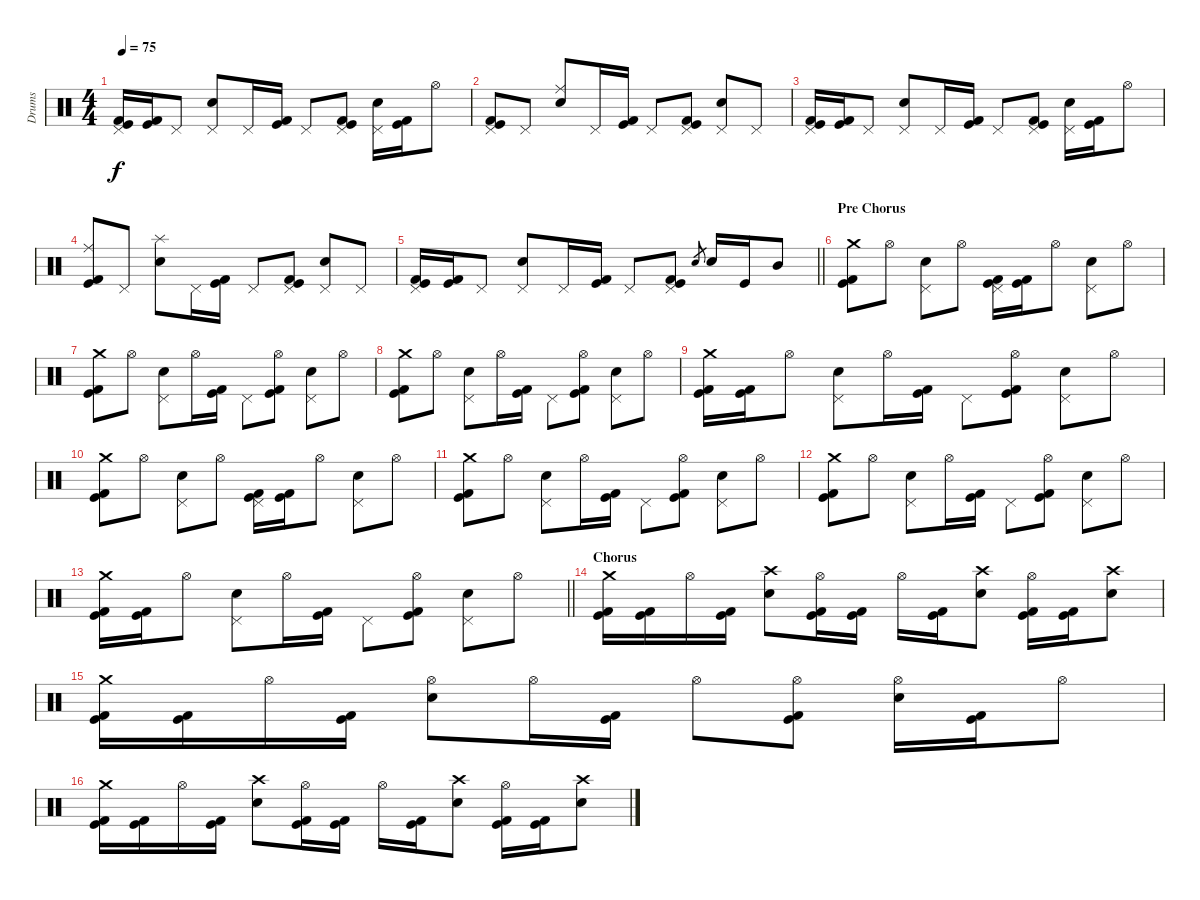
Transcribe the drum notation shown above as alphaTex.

\track ("Drums" "Drums") {instrument percussion}
\staff {score}
\articulation defaults
\ts (4 4)
\tempo 75
\clef neutral
\ks c
("Pedal Hi-Hat (hit)" "Kick (hit) 2" "Kick (hit)").16{dy f} ("Kick (hit) 2" "Kick (hit)").16 "Pedal Hi-Hat (hit)".8 ("Pedal Hi-Hat (hit)" "Electric Snare (hit)").8 "Pedal Hi-Hat (hit)".16 ("Kick (hit) 2" "Kick (hit)").16 "Pedal Hi-Hat (hit)".8 ("Pedal Hi-Hat (hit)" "Kick (hit) 2" "Kick (hit)").8 ("Pedal Hi-Hat (hit)" "Electric Snare (hit)").16 ("Kick (hit) 2" "Kick (hit)").16 "Hi-Hat (open)".8 |
("Pedal Hi-Hat (hit)" "Kick (hit) 2" "Kick (hit)").8 "Pedal Hi-Hat (hit)".8 ("Ride (middle)" "Electric Snare (hit)").8 "Pedal Hi-Hat (hit)".16 ("Kick (hit) 2" "Kick (hit)").16 "Pedal Hi-Hat (hit)".8 ("Pedal Hi-Hat (hit)" "Kick (hit) 2" "Kick (hit)").8 ("Pedal Hi-Hat (hit)" "Electric Snare (hit)").8 "Pedal Hi-Hat (hit)".8 |
("Pedal Hi-Hat (hit)" "Kick (hit) 2" "Kick (hit)").16 ("Kick (hit) 2" "Kick (hit)").16 "Pedal Hi-Hat (hit)".8 ("Pedal Hi-Hat (hit)" "Electric Snare (hit)").8 "Pedal Hi-Hat (hit)".16 ("Kick (hit) 2" "Kick (hit)").16 "Pedal Hi-Hat (hit)".8 ("Pedal Hi-Hat (hit)" "Kick (hit) 2" "Kick (hit)").8 ("Pedal Hi-Hat (hit)" "Electric Snare (hit)").16 ("Kick (hit) 2" "Kick (hit)").16 "Hi-Hat (open)".8 |
("Ride (middle)" "Kick (hit) 2" "Kick (hit)").8 "Pedal Hi-Hat (hit)".8 ("Splash (hit)" "Electric Snare (hit)").8 "Pedal Hi-Hat (hit)".16 ("Kick (hit) 2" "Kick (hit)").16 "Pedal Hi-Hat (hit)".8 ("Pedal Hi-Hat (hit)" "Kick (hit) 2" "Kick (hit)").8 ("Pedal Hi-Hat (hit)" "Electric Snare (hit)").8 "Pedal Hi-Hat (hit)".8 |
\barLineRight lightlight
("Pedal Hi-Hat (hit)" "Kick (hit) 2" "Kick (hit)").16 ("Kick (hit) 2" "Kick (hit)").16 "Pedal Hi-Hat (hit)".8 ("Pedal Hi-Hat (hit)" "Electric Snare (hit)").8 "Pedal Hi-Hat (hit)".16 ("Kick (hit) 2" "Kick (hit)").16 "Pedal Hi-Hat (hit)".8 ("Pedal Hi-Hat (hit)" "Kick (hit) 2" "Kick (hit)").8 "Electric Snare (hit)".8{gr} "Electric Snare (hit)".16 "Kick (hit)".16 "Mid Tom (hit)".8 |
\section ("" "Pre Chorus")
("Crash medium (hit)" "Kick (hit) 2" "Kick (hit)").8 "Hi-Hat (open)".8 ("Pedal Hi-Hat (hit)" "Electric Snare (hit)").8 "Hi-Hat (open)".8 ("Pedal Hi-Hat (hit)" "Kick (hit) 2" "Kick (hit)").16 ("Kick (hit) 2" "Kick (hit)").16 "Hi-Hat (open)".8 ("Pedal Hi-Hat (hit)" "Electric Snare (hit)").8 "Hi-Hat (open)".8 |
("Crash medium (hit)" "Kick (hit) 2" "Kick (hit)").8 "Hi-Hat (open)".8 ("Pedal Hi-Hat (hit)" "Electric Snare (hit)").8 "Hi-Hat (open)".16 ("Kick (hit) 2" "Kick (hit)").16 "Pedal Hi-Hat (hit)".8 ("Hi-Hat (open)" "Kick (hit) 2" "Kick (hit)").8 ("Pedal Hi-Hat (hit)" "Electric Snare (hit)").8 "Hi-Hat (open)".8 |
("Crash medium (hit)" "Kick (hit) 2" "Kick (hit)").8 "Hi-Hat (open)".8 ("Pedal Hi-Hat (hit)" "Electric Snare (hit)").8 "Hi-Hat (open)".16 ("Kick (hit) 2" "Kick (hit)").16 "Pedal Hi-Hat (hit)".8 ("Hi-Hat (open)" "Kick (hit) 2" "Kick (hit)").8 ("Pedal Hi-Hat (hit)" "Electric Snare (hit)").8 "Hi-Hat (open)".8 |
("Crash medium (hit)" "Kick (hit) 2" "Kick (hit)").16 ("Kick (hit) 2" "Kick (hit)").16 "Hi-Hat (open)".8 ("Pedal Hi-Hat (hit)" "Electric Snare (hit)").8 "Hi-Hat (open)".16 ("Kick (hit) 2" "Kick (hit)").16 "Pedal Hi-Hat (hit)".8 ("Hi-Hat (open)" "Kick (hit) 2" "Kick (hit)").8 ("Pedal Hi-Hat (hit)" "Electric Snare (hit)").8 "Hi-Hat (open)".8 |
("Crash medium (hit)" "Kick (hit) 2" "Kick (hit)").8 "Hi-Hat (open)".8 ("Pedal Hi-Hat (hit)" "Electric Snare (hit)").8 "Hi-Hat (open)".8 ("Pedal Hi-Hat (hit)" "Kick (hit) 2" "Kick (hit)").16 ("Kick (hit) 2" "Kick (hit)").16 "Hi-Hat (open)".8 ("Pedal Hi-Hat (hit)" "Electric Snare (hit)").8 "Hi-Hat (open)".8 |
("Crash medium (hit)" "Kick (hit) 2" "Kick (hit)").8 "Hi-Hat (open)".8 ("Pedal Hi-Hat (hit)" "Electric Snare (hit)").8 "Hi-Hat (open)".16 ("Kick (hit) 2" "Kick (hit)").16 "Pedal Hi-Hat (hit)".8 ("Hi-Hat (open)" "Kick (hit) 2" "Kick (hit)").8 ("Pedal Hi-Hat (hit)" "Electric Snare (hit)").8 "Hi-Hat (open)".8 |
("Crash medium (hit)" "Kick (hit) 2" "Kick (hit)").8 "Hi-Hat (open)".8 ("Pedal Hi-Hat (hit)" "Electric Snare (hit)").8 "Hi-Hat (open)".16 ("Kick (hit) 2" "Kick (hit)").16 "Pedal Hi-Hat (hit)".8 ("Hi-Hat (open)" "Kick (hit) 2" "Kick (hit)").8 ("Pedal Hi-Hat (hit)" "Electric Snare (hit)").8 "Hi-Hat (open)".8 |
\barLineRight lightlight
("Crash medium (hit)" "Kick (hit) 2" "Kick (hit)").16 ("Kick (hit) 2" "Kick (hit)").16 "Hi-Hat (open)".8 ("Pedal Hi-Hat (hit)" "Electric Snare (hit)").8 "Hi-Hat (open)".16 ("Kick (hit) 2" "Kick (hit)").16 "Pedal Hi-Hat (hit)".8 ("Hi-Hat (open)" "Kick (hit) 2" "Kick (hit)").8 ("Pedal Hi-Hat (hit)" "Electric Snare (hit)").8 "Hi-Hat (open)".8 |
\section ("" "Chorus")
("Crash medium (hit)" "Kick (hit) 2" "Kick (hit)").16 ("Kick (hit) 2" "Kick (hit)").16 "Hi-Hat (open)".16 ("Kick (hit) 2" "Kick (hit)").16 ("Crash high (hit)" "Electric Snare (hit)").8 ("Hi-Hat (open)" "Kick (hit) 2" "Kick (hit)").16 ("Kick (hit) 2" "Kick (hit)").16 "Hi-Hat (open)".16 ("Kick (hit) 2" "Kick (hit)").16 ("Crash high (hit)" "Electric Snare (hit)").8 ("Hi-Hat (open)" "Kick (hit) 2" "Kick (hit)").16 ("Kick (hit) 2" "Kick (hit)").16 ("Crash high (hit)" "Electric Snare (hit)").8 |
("Crash medium (hit)" "Kick (hit) 2" "Kick (hit)").16 ("Kick (hit) 2" "Kick (hit)").16 "Hi-Hat (open)".16 ("Kick (hit) 2" "Kick (hit)").16 ("Hi-Hat (open)" "Electric Snare (hit)").8 "Hi-Hat (open)".16 ("Kick (hit) 2" "Kick (hit)").16 "Hi-Hat (open)".8 ("Hi-Hat (open)" "Kick (hit) 2" "Kick (hit)").8 ("Hi-Hat (open)" "Electric Snare (hit)").16 ("Kick (hit) 2" "Kick (hit)").16 "Hi-Hat (open)".8 |
("Crash medium (hit)" "Kick (hit) 2" "Kick (hit)").16 ("Kick (hit) 2" "Kick (hit)").16 "Hi-Hat (open)".16 ("Kick (hit) 2" "Kick (hit)").16 ("Crash high (hit)" "Electric Snare (hit)").8 ("Hi-Hat (open)" "Kick (hit) 2" "Kick (hit)").16 ("Kick (hit) 2" "Kick (hit)").16 "Hi-Hat (open)".16 ("Kick (hit) 2" "Kick (hit)").16 ("Crash high (hit)" "Electric Snare (hit)").8 ("Hi-Hat (open)" "Kick (hit) 2" "Kick (hit)").16 ("Kick (hit) 2" "Kick (hit)").16 ("Crash high (hit)" "Electric Snare (hit)").8
